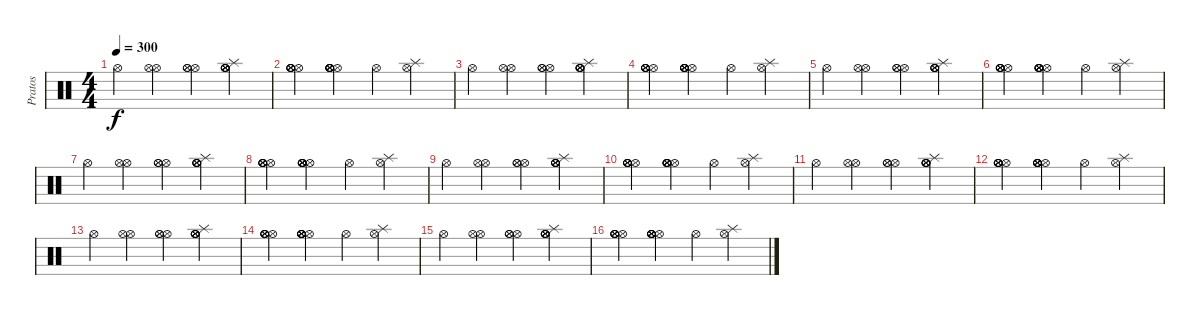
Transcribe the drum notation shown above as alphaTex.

\track ("Pratos" "Pratos") {instrument percussion}
\staff {score}
\articulation defaults
\ts (4 4)
\tempo 300
\clef neutral
\ks c "Hi-Hat (open)".4{dy f}
("Hi-Hat (open)" "Hi-Hat (open)").4 ("Hi-Hat (open)" "Hi-Hat (open)" "Hi-Hat (open)").4 ("Splash (hit)" "Hi-Hat (open)" "Hi-Hat (open)" "Hi-Hat (open)" "Hi-Hat (open)").4 |
("Hi-Hat (open)" "Hi-Hat (open)" "Hi-Hat (open)" "Hi-Hat (open)" "Hi-Hat (open)").4 ("Hi-Hat (open)" "Hi-Hat (open)" "Hi-Hat (open)" "Hi-Hat (open)" "Hi-Hat (open)" "Hi-Hat (open)").4 "Hi-Hat (open)".4 ("Hi-Hat (open)" "Splash (hit)").4 |
"Hi-Hat (open)".4 ("Hi-Hat (open)" "Hi-Hat (open)").4 ("Hi-Hat (open)" "Hi-Hat (open)" "Hi-Hat (open)").4 ("Splash (hit)" "Hi-Hat (open)" "Hi-Hat (open)" "Hi-Hat (open)" "Hi-Hat (open)").4 |
("Hi-Hat (open)" "Hi-Hat (open)" "Hi-Hat (open)" "Hi-Hat (open)" "Hi-Hat (open)").4 ("Hi-Hat (open)" "Hi-Hat (open)" "Hi-Hat (open)" "Hi-Hat (open)" "Hi-Hat (open)" "Hi-Hat (open)").4 "Hi-Hat (open)".4 ("Hi-Hat (open)" "Splash (hit)").4 |
"Hi-Hat (open)".4 ("Hi-Hat (open)" "Hi-Hat (open)").4 ("Hi-Hat (open)" "Hi-Hat (open)" "Hi-Hat (open)").4 ("Splash (hit)" "Hi-Hat (open)" "Hi-Hat (open)" "Hi-Hat (open)" "Hi-Hat (open)").4 |
("Hi-Hat (open)" "Hi-Hat (open)" "Hi-Hat (open)" "Hi-Hat (open)" "Hi-Hat (open)").4 ("Hi-Hat (open)" "Hi-Hat (open)" "Hi-Hat (open)" "Hi-Hat (open)" "Hi-Hat (open)" "Hi-Hat (open)").4 "Hi-Hat (open)".4 ("Hi-Hat (open)" "Splash (hit)").4 |
"Hi-Hat (open)".4 ("Hi-Hat (open)" "Hi-Hat (open)").4 ("Hi-Hat (open)" "Hi-Hat (open)" "Hi-Hat (open)").4 ("Splash (hit)" "Hi-Hat (open)" "Hi-Hat (open)" "Hi-Hat (open)" "Hi-Hat (open)").4 |
("Hi-Hat (open)" "Hi-Hat (open)" "Hi-Hat (open)" "Hi-Hat (open)" "Hi-Hat (open)").4 ("Hi-Hat (open)" "Hi-Hat (open)" "Hi-Hat (open)" "Hi-Hat (open)" "Hi-Hat (open)" "Hi-Hat (open)").4 "Hi-Hat (open)".4 ("Hi-Hat (open)" "Splash (hit)").4 |
"Hi-Hat (open)".4 ("Hi-Hat (open)" "Hi-Hat (open)").4 ("Hi-Hat (open)" "Hi-Hat (open)" "Hi-Hat (open)").4 ("Splash (hit)" "Hi-Hat (open)" "Hi-Hat (open)" "Hi-Hat (open)" "Hi-Hat (open)").4 |
("Hi-Hat (open)" "Hi-Hat (open)" "Hi-Hat (open)" "Hi-Hat (open)" "Hi-Hat (open)").4 ("Hi-Hat (open)" "Hi-Hat (open)" "Hi-Hat (open)" "Hi-Hat (open)" "Hi-Hat (open)" "Hi-Hat (open)").4 "Hi-Hat (open)".4 ("Hi-Hat (open)" "Splash (hit)").4 |
"Hi-Hat (open)".4 ("Hi-Hat (open)" "Hi-Hat (open)").4 ("Hi-Hat (open)" "Hi-Hat (open)" "Hi-Hat (open)").4 ("Splash (hit)" "Hi-Hat (open)" "Hi-Hat (open)" "Hi-Hat (open)" "Hi-Hat (open)").4 |
("Hi-Hat (open)" "Hi-Hat (open)" "Hi-Hat (open)" "Hi-Hat (open)" "Hi-Hat (open)").4 ("Hi-Hat (open)" "Hi-Hat (open)" "Hi-Hat (open)" "Hi-Hat (open)" "Hi-Hat (open)" "Hi-Hat (open)").4 "Hi-Hat (open)".4 ("Hi-Hat (open)" "Splash (hit)").4 |
"Hi-Hat (open)".4 ("Hi-Hat (open)" "Hi-Hat (open)").4 ("Hi-Hat (open)" "Hi-Hat (open)" "Hi-Hat (open)").4 ("Splash (hit)" "Hi-Hat (open)" "Hi-Hat (open)" "Hi-Hat (open)" "Hi-Hat (open)").4 |
("Hi-Hat (open)" "Hi-Hat (open)" "Hi-Hat (open)" "Hi-Hat (open)" "Hi-Hat (open)").4 ("Hi-Hat (open)" "Hi-Hat (open)" "Hi-Hat (open)" "Hi-Hat (open)" "Hi-Hat (open)" "Hi-Hat (open)").4 "Hi-Hat (open)".4 ("Hi-Hat (open)" "Splash (hit)").4 |
"Hi-Hat (open)".4 ("Hi-Hat (open)" "Hi-Hat (open)").4 ("Hi-Hat (open)" "Hi-Hat (open)" "Hi-Hat (open)").4 ("Splash (hit)" "Hi-Hat (open)" "Hi-Hat (open)" "Hi-Hat (open)" "Hi-Hat (open)").4 |
("Hi-Hat (open)" "Hi-Hat (open)" "Hi-Hat (open)" "Hi-Hat (open)" "Hi-Hat (open)").4 ("Hi-Hat (open)" "Hi-Hat (open)" "Hi-Hat (open)" "Hi-Hat (open)" "Hi-Hat (open)" "Hi-Hat (open)").4 "Hi-Hat (open)".4 ("Hi-Hat (open)" "Splash (hit)").4
